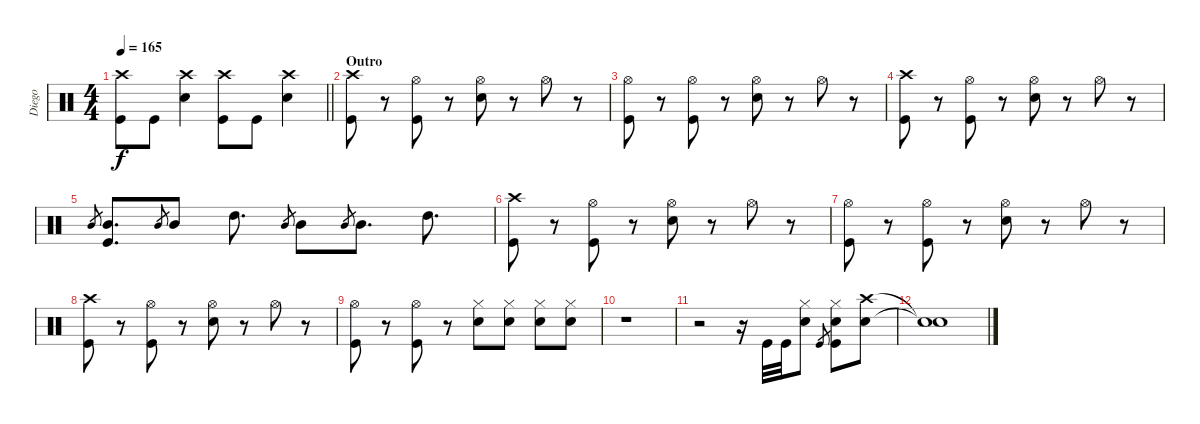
\track ("Diego" "Diego") {instrument percussion}
\staff {score}
\articulation defaults
\ts (4 4)
\tempo 165
\clef neutral
\barLineRight lightlight
\ks c
("Crash high (hit)" "Kick (hit)").8{dy f} "Kick (hit)".8 ("Crash high (hit)" "Snare (hit) 2").4 ("Crash high (hit)" "Kick (hit)").8 "Kick (hit)".8 ("Crash high (hit)" "Snare (hit) 2").4 |
\section ("" "Outro")
("Crash high (hit)" "Kick (hit)").8 r.8 ("Hi-Hat (open)" "Kick (hit)").8 r.8 ("Hi-Hat (open)" "Snare (hit) 2").8 r.8 "Hi-Hat (open)".8 r.8 |
("Hi-Hat (open)" "Kick (hit)").8 r.8 ("Hi-Hat (open)" "Kick (hit)").8 r.8 ("Hi-Hat (open)" "Snare (hit) 2").8 r.8 "Hi-Hat (open)".8 r.8 |
("Crash high (hit)" "Kick (hit)").8 r.8 ("Hi-Hat (open)" "Kick (hit)").8 r.8 ("Hi-Hat (open)" "Snare (hit) 2").8 r.8 "Hi-Hat (open)".8 r.8 |
"Mid Tom (hit)".8{gr} ("Mid Tom (hit)" "Kick (hit)").8{d} "Mid Tom (hit)".8{gr} "Mid Tom (hit)".8 "High Tom (hit)".8{d} "Mid Tom (hit)".8{gr} "Mid Tom (hit)".8 "Mid Tom (hit)".8{gr} "Mid Tom (hit)".8{d} "High Tom (hit)".8{d} |
("Crash high (hit)" "Kick (hit)").8 r.8 ("Hi-Hat (open)" "Kick (hit)").8 r.8 ("Hi-Hat (open)" "Snare (hit) 2").8 r.8 "Hi-Hat (open)".8 r.8 |
("Hi-Hat (open)" "Kick (hit)").8 r.8 ("Hi-Hat (open)" "Kick (hit)").8 r.8 ("Hi-Hat (open)" "Snare (hit) 2").8 r.8 "Hi-Hat (open)".8 r.8 |
("Crash high (hit)" "Kick (hit)").8 r.8 ("Hi-Hat (open)" "Kick (hit)").8 r.8 ("Hi-Hat (open)" "Snare (hit) 2").8 r.8 "Hi-Hat (open)".8 r.8 |
("Hi-Hat (open)" "Kick (hit)").8 r.8 ("Hi-Hat (open)" "Kick (hit)").8 r.8 ("Hi-Hat (closed)" "Snare (hit) 2").8 ("Hi-Hat (closed)" "Snare (hit) 2").8 ("Hi-Hat (closed)" "Snare (hit) 2").8 ("Hi-Hat (closed)" "Snare (hit) 2").8 |
r.1 |
r.2 r.16 "Kick (hit)".32 "Kick (hit)".32 ("Hi-Hat (closed)" "Snare (hit) 2").8 "Kick (hit)".8{gr} ("Hi-Hat (closed)" "Snare (hit) 2" "Kick (hit)").8 ("Crash high (hit)" "Snare (hit) 2").8 |
("Snare (hit)"{t} "Snare (hit)"{t}).1
